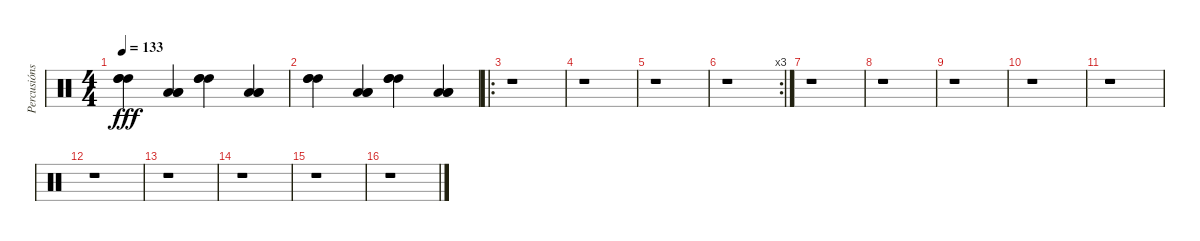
\track ("Percusións" "Percusións") {instrument percussion}
\staff {score}
\articulation defaults
\ts (4 4)
\tempo 133
\clef neutral
\ks c
("High Tom (hit)" "High Tom (hit)" "High Tom (hit)").4{dy fff} ("Low Tom (hit)" "Low Tom (hit)" "Low Tom (hit)").4 ("High Tom (hit)" "High Tom (hit)" "High Tom (hit)").4{volume 7} ("Low Tom (hit)" "Low Tom (hit)" "Low Tom (hit)").4 |
("High Tom (hit)" "High Tom (hit)" "High Tom (hit)").4 ("Low Tom (hit)" "Low Tom (hit)" "Low Tom (hit)").4 ("High Tom (hit)" "High Tom (hit)" "High Tom (hit)").4 ("Low Tom (hit)" "Low Tom (hit)" "Low Tom (hit)").4 |
\ro
r.1{volume 16} |
r.1 |
r.1 |
\rc 3
r.1 |
r.1 |
r.1 |
r.1 |
r.1 |
r.1 |
r.1 |
r.1 |
r.1 |
r.1 |
r.1
